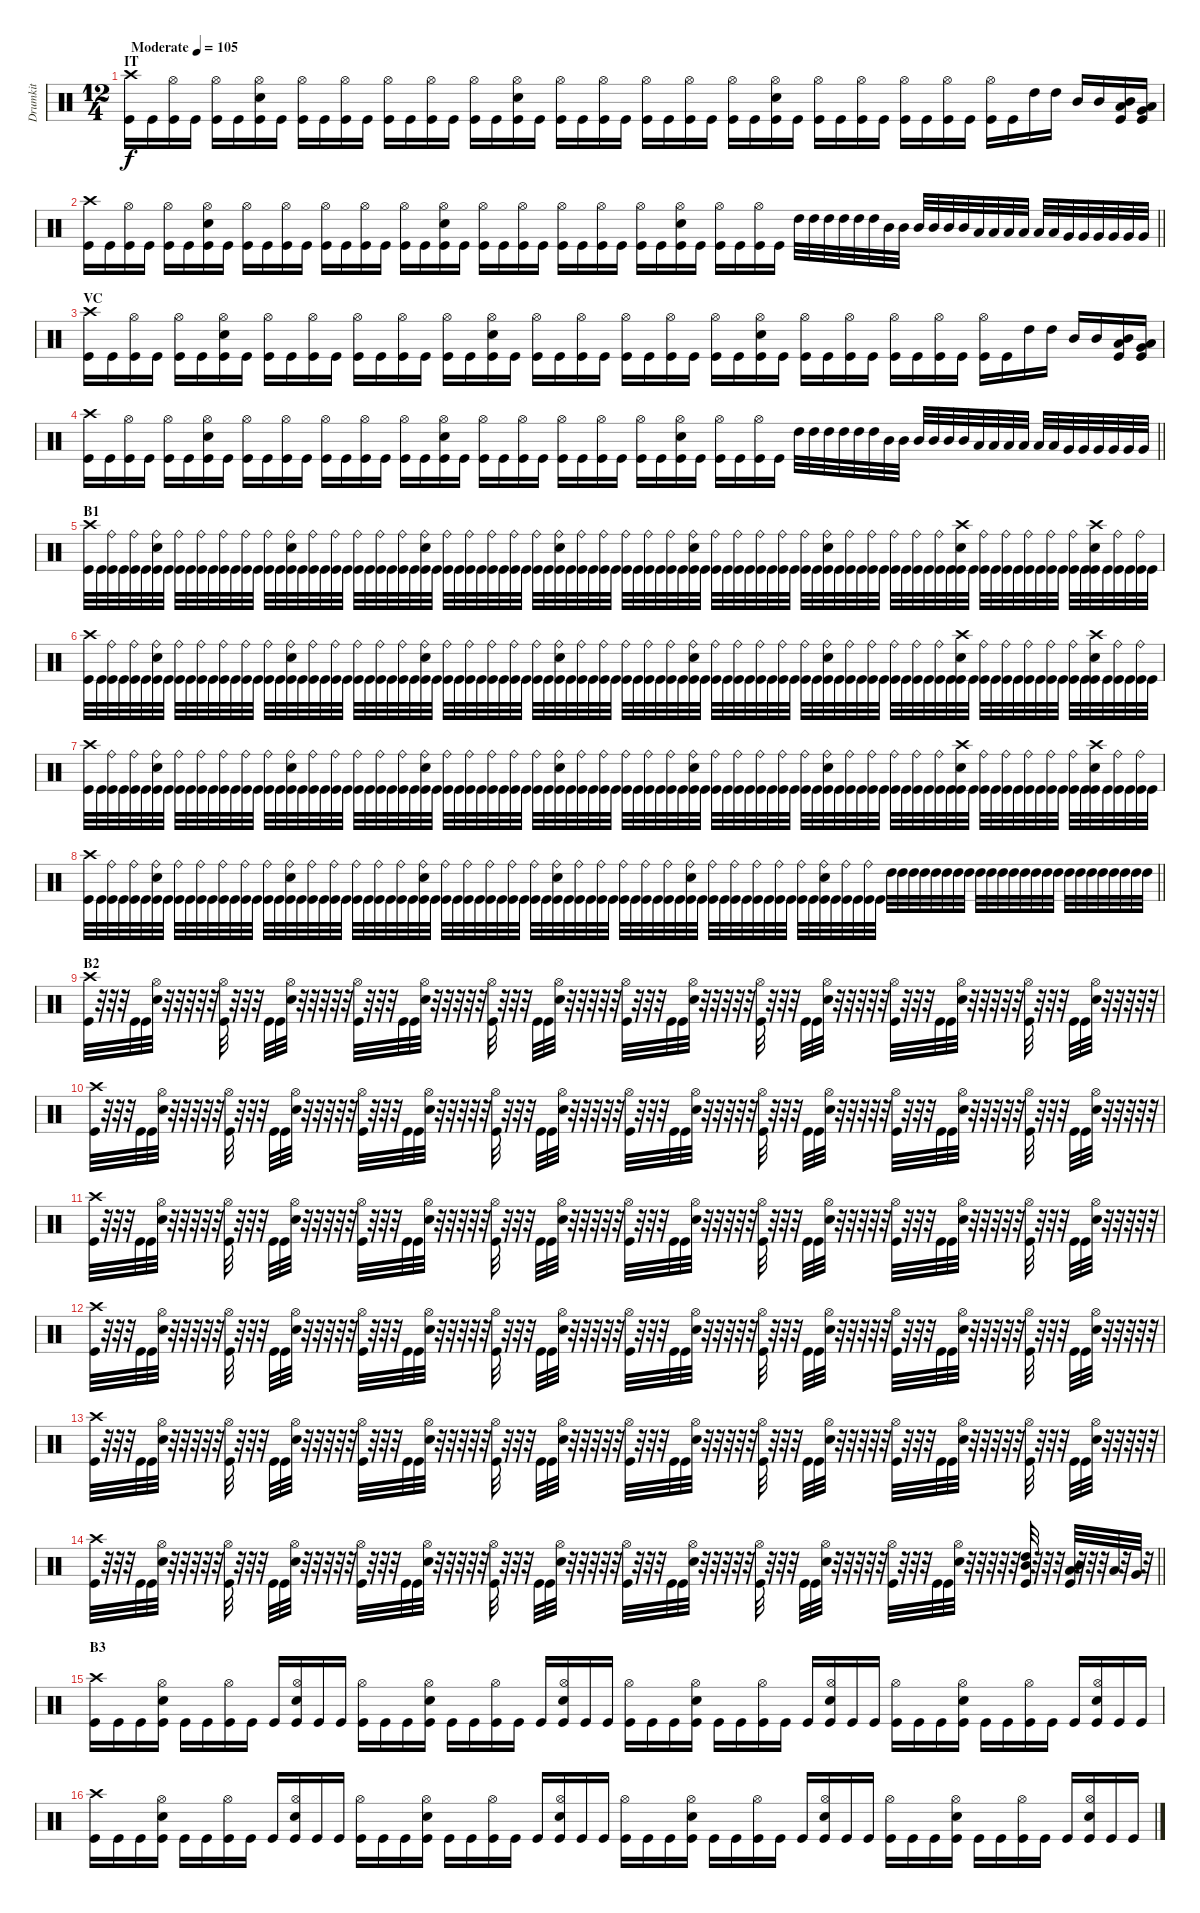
\track ("Drumkit" "Drumkit") {instrument percussion}
\staff {score}
\articulation defaults
\ts (12 4)
\section ("" "IT")
\tempo (105 "Moderate")
\clef neutral
\ks c
("Crash high (hit)" "Kick (hit)").16{dy f} "Kick (hit)".16 ("Hi-Hat (open)" "Kick (hit)").16 "Kick (hit)".16 ("Hi-Hat (open)" "Kick (hit)").16 "Kick (hit)".16 ("Hi-Hat (open)" "Snare (hit) 2" "Kick (hit)").16 "Kick (hit)".16 ("Hi-Hat (open)" "Kick (hit)").16 "Kick (hit)".16 ("Hi-Hat (open)" "Kick (hit)").16 "Kick (hit)".16 ("Hi-Hat (open)" "Kick (hit)").16 "Kick (hit)".16 ("Hi-Hat (open)" "Kick (hit)").16 "Kick (hit)".16 ("Hi-Hat (open)" "Kick (hit)").16 "Kick (hit)".16 ("Hi-Hat (open)" "Snare (hit) 2" "Kick (hit)").16 "Kick (hit)".16 ("Hi-Hat (open)" "Kick (hit)").16 "Kick (hit)".16 ("Hi-Hat (open)" "Kick (hit)").16 "Kick (hit)".16 ("Hi-Hat (open)" "Kick (hit)").16 "Kick (hit)".16 ("Hi-Hat (open)" "Kick (hit)").16 "Kick (hit)".16 ("Hi-Hat (open)" "Kick (hit)").16 "Kick (hit)".16 ("Hi-Hat (open)" "Snare (hit) 2" "Kick (hit)").16 "Kick (hit)".16 ("Hi-Hat (open)" "Kick (hit)").16 "Kick (hit)".16 ("Hi-Hat (open)" "Kick (hit)").16 "Kick (hit)".16 ("Hi-Hat (open)" "Kick (hit)").16 "Kick (hit)".16 ("Hi-Hat (open)" "Kick (hit)").16 "Kick (hit)".16 ("Hi-Hat (open)" "Kick (hit)").16 "Kick (hit)".16 "High Tom (hit)".16 "High Tom (hit)".16 "Mid Tom (hit)".16 "Mid Tom (hit)".16 ("Mid Tom (hit)" "Low Tom (hit)" "Kick (hit)").16 ("Low Tom (hit)" "Very Low Tom (hit)" "Kick (hit)").16 |
\barLineRight lightlight
("Crash high (hit)" "Kick (hit)").16 "Kick (hit)".16 ("Hi-Hat (open)" "Kick (hit)").16 "Kick (hit)".16 ("Hi-Hat (open)" "Kick (hit)").16 "Kick (hit)".16 ("Hi-Hat (open)" "Snare (hit) 2" "Kick (hit)").16 "Kick (hit)".16 ("Hi-Hat (open)" "Kick (hit)").16 "Kick (hit)".16 ("Hi-Hat (open)" "Kick (hit)").16 "Kick (hit)".16 ("Hi-Hat (open)" "Kick (hit)").16 "Kick (hit)".16 ("Hi-Hat (open)" "Kick (hit)").16 "Kick (hit)".16 ("Hi-Hat (open)" "Kick (hit)").16 "Kick (hit)".16 ("Hi-Hat (open)" "Snare (hit) 2" "Kick (hit)").16 "Kick (hit)".16 ("Hi-Hat (open)" "Kick (hit)").16 "Kick (hit)".16 ("Hi-Hat (open)" "Kick (hit)").16 "Kick (hit)".16 ("Hi-Hat (open)" "Kick (hit)").16 "Kick (hit)".16 ("Hi-Hat (open)" "Kick (hit)").16 "Kick (hit)".16 ("Hi-Hat (open)" "Kick (hit)").16 "Kick (hit)".16 ("Hi-Hat (open)" "Snare (hit) 2" "Kick (hit)").16 "Kick (hit)".16 ("Hi-Hat (open)" "Kick (hit)").16 "Kick (hit)".16 ("Hi-Hat (open)" "Kick (hit)").16 "Kick (hit)".16 "High Tom (hit)".32 "High Tom (hit)".32 "High Tom (hit)".32 "High Tom (hit)".32 "High Tom (hit)".32 "High Tom (hit)".32 "Mid Tom (hit)".32 "Mid Tom (hit)".32 "Mid Tom (hit)".32 "Mid Tom (hit)".32 "Mid Tom (hit)".32 "Mid Tom (hit)".32 "Low Tom (hit)".32 "Low Tom (hit)".32 "Low Tom (hit)".32 "Low Tom (hit)".32 "Low Tom (hit)".32 "Low Tom (hit)".32 "Very Low Tom (hit)".32 "Very Low Tom (hit)".32 "Very Low Tom (hit)".32 "Very Low Tom (hit)".32 "Very Low Tom (hit)".32 "Very Low Tom (hit)".32 |
\section ("" "VC")
("Crash high (hit)" "Kick (hit)").16 "Kick (hit)".16 ("Hi-Hat (open)" "Kick (hit)").16 "Kick (hit)".16 ("Hi-Hat (open)" "Kick (hit)").16 "Kick (hit)".16 ("Hi-Hat (open)" "Snare (hit) 2" "Kick (hit)").16 "Kick (hit)".16 ("Hi-Hat (open)" "Kick (hit)").16 "Kick (hit)".16 ("Hi-Hat (open)" "Kick (hit)").16 "Kick (hit)".16 ("Hi-Hat (open)" "Kick (hit)").16 "Kick (hit)".16 ("Hi-Hat (open)" "Kick (hit)").16 "Kick (hit)".16 ("Hi-Hat (open)" "Kick (hit)").16 "Kick (hit)".16 ("Hi-Hat (open)" "Snare (hit) 2" "Kick (hit)").16 "Kick (hit)".16 ("Hi-Hat (open)" "Kick (hit)").16 "Kick (hit)".16 ("Hi-Hat (open)" "Kick (hit)").16 "Kick (hit)".16 ("Hi-Hat (open)" "Kick (hit)").16 "Kick (hit)".16 ("Hi-Hat (open)" "Kick (hit)").16 "Kick (hit)".16 ("Hi-Hat (open)" "Kick (hit)").16 "Kick (hit)".16 ("Hi-Hat (open)" "Snare (hit) 2" "Kick (hit)").16 "Kick (hit)".16 ("Hi-Hat (open)" "Kick (hit)").16 "Kick (hit)".16 ("Hi-Hat (open)" "Kick (hit)").16 "Kick (hit)".16 ("Hi-Hat (open)" "Kick (hit)").16 "Kick (hit)".16 ("Hi-Hat (open)" "Kick (hit)").16 "Kick (hit)".16 ("Hi-Hat (open)" "Kick (hit)").16 "Kick (hit)".16 "High Tom (hit)".16 "High Tom (hit)".16 "Mid Tom (hit)".16 "Mid Tom (hit)".16 ("Mid Tom (hit)" "Low Tom (hit)" "Kick (hit)").16 ("Low Tom (hit)" "Very Low Tom (hit)" "Kick (hit)").16 |
\barLineRight lightlight
("Crash high (hit)" "Kick (hit)").16 "Kick (hit)".16 ("Hi-Hat (open)" "Kick (hit)").16 "Kick (hit)".16 ("Hi-Hat (open)" "Kick (hit)").16 "Kick (hit)".16 ("Hi-Hat (open)" "Snare (hit) 2" "Kick (hit)").16 "Kick (hit)".16 ("Hi-Hat (open)" "Kick (hit)").16 "Kick (hit)".16 ("Hi-Hat (open)" "Kick (hit)").16 "Kick (hit)".16 ("Hi-Hat (open)" "Kick (hit)").16 "Kick (hit)".16 ("Hi-Hat (open)" "Kick (hit)").16 "Kick (hit)".16 ("Hi-Hat (open)" "Kick (hit)").16 "Kick (hit)".16 ("Hi-Hat (open)" "Snare (hit) 2" "Kick (hit)").16 "Kick (hit)".16 ("Hi-Hat (open)" "Kick (hit)").16 "Kick (hit)".16 ("Hi-Hat (open)" "Kick (hit)").16 "Kick (hit)".16 ("Hi-Hat (open)" "Kick (hit)").16 "Kick (hit)".16 ("Hi-Hat (open)" "Kick (hit)").16 "Kick (hit)".16 ("Hi-Hat (open)" "Kick (hit)").16 "Kick (hit)".16 ("Hi-Hat (open)" "Snare (hit) 2" "Kick (hit)").16 "Kick (hit)".16 ("Hi-Hat (open)" "Kick (hit)").16 "Kick (hit)".16 ("Hi-Hat (open)" "Kick (hit)").16 "Kick (hit)".16 "High Tom (hit)".32 "High Tom (hit)".32 "High Tom (hit)".32 "High Tom (hit)".32 "High Tom (hit)".32 "High Tom (hit)".32 "Mid Tom (hit)".32 "Mid Tom (hit)".32 "Mid Tom (hit)".32 "Mid Tom (hit)".32 "Mid Tom (hit)".32 "Mid Tom (hit)".32 "Low Tom (hit)".32 "Low Tom (hit)".32 "Low Tom (hit)".32 "Low Tom (hit)".32 "Low Tom (hit)".32 "Low Tom (hit)".32 "Very Low Tom (hit)".32 "Very Low Tom (hit)".32 "Very Low Tom (hit)".32 "Very Low Tom (hit)".32 "Very Low Tom (hit)".32 "Very Low Tom (hit)".32 |
\section ("" "B1")
("Crash high (hit)" "Kick (hit)").32 "Kick (hit)".32 ("Ride (bell)" "Kick (hit)").32 "Kick (hit)".32 ("Ride (bell)" "Kick (hit)").32 "Kick (hit)".32 ("Ride (bell)" "Snare (hit) 2" "Kick (hit)").32 "Kick (hit)".32 ("Ride (bell)" "Kick (hit)").32 "Kick (hit)".32 ("Ride (bell)" "Kick (hit)").32 "Kick (hit)".32 ("Ride (bell)" "Kick (hit)").32 "Kick (hit)".32 ("Ride (bell)" "Kick (hit)").32 "Kick (hit)".32 ("Ride (bell)" "Kick (hit)").32 "Kick (hit)".32 ("Ride (bell)" "Snare (hit) 2" "Kick (hit)").32 "Kick (hit)".32 ("Ride (bell)" "Kick (hit)").32 "Kick (hit)".32 ("Ride (bell)" "Kick (hit)").32 "Kick (hit)".32 ("Ride (bell)" "Kick (hit)").32 "Kick (hit)".32 ("Ride (bell)" "Kick (hit)").32 "Kick (hit)".32 ("Ride (bell)" "Kick (hit)").32 "Kick (hit)".32 ("Ride (bell)" "Snare (hit) 2" "Kick (hit)").32 "Kick (hit)".32 ("Ride (bell)" "Kick (hit)").32 "Kick (hit)".32 ("Ride (bell)" "Kick (hit)").32 "Kick (hit)".32 ("Ride (bell)" "Kick (hit)").32 "Kick (hit)".32 ("Ride (bell)" "Kick (hit)").32 "Kick (hit)".32 ("Ride (bell)" "Kick (hit)").32 "Kick (hit)".32 ("Ride (bell)" "Snare (hit) 2" "Kick (hit)").32 "Kick (hit)".32 ("Ride (bell)" "Kick (hit)").32 "Kick (hit)".32 ("Ride (bell)" "Kick (hit)").32 "Kick (hit)".32 ("Ride (bell)" "Kick (hit)").32 "Kick (hit)".32 ("Ride (bell)" "Kick (hit)").32 "Kick (hit)".32 ("Ride (bell)" "Kick (hit)").32 "Kick (hit)".32 ("Ride (bell)" "Snare (hit) 2" "Kick (hit)").32 "Kick (hit)".32 ("Ride (bell)" "Kick (hit)").32 "Kick (hit)".32 ("Ride (bell)" "Kick (hit)").32 "Kick (hit)".32 ("Ride (bell)" "Kick (hit)").32 "Kick (hit)".32 ("Ride (bell)" "Kick (hit)").32 "Kick (hit)".32 ("Ride (bell)" "Kick (hit)").32 "Kick (hit)".32 ("Ride (bell)" "Snare (hit) 2" "Kick (hit)").32 "Kick (hit)".32 ("Ride (bell)" "Kick (hit)").32 "Kick (hit)".32 ("Ride (bell)" "Kick (hit)").32 "Kick (hit)".32 ("Ride (bell)" "Kick (hit)").32 "Kick (hit)".32 ("Ride (bell)" "Kick (hit)").32 "Kick (hit)".32 ("Ride (bell)" "Kick (hit)").32 "Kick (hit)".32 ("Crash high (hit)" "Snare (hit) 2" "Kick (hit)").32 "Kick (hit)".32 ("Ride (bell)" "Kick (hit)").32 "Kick (hit)".32 ("Ride (bell)" "Kick (hit)").32 "Kick (hit)".32 ("Ride (bell)" "Kick (hit)").32 "Kick (hit)".32 ("Ride (bell)" "Kick (hit)").32 "Kick (hit)".32 ("Ride (bell)" "Kick (hit)").32 "Kick (hit)".32 ("Crash high (hit)" "Snare (hit) 2" "Kick (hit)").32 "Kick (hit)".32 ("Ride (bell)" "Kick (hit)").32 "Kick (hit)".32 ("Ride (bell)" "Kick (hit)").32 "Kick (hit)".32 |
("Crash high (hit)" "Kick (hit)").32 "Kick (hit)".32 ("Ride (bell)" "Kick (hit)").32 "Kick (hit)".32 ("Ride (bell)" "Kick (hit)").32 "Kick (hit)".32 ("Ride (bell)" "Snare (hit) 2" "Kick (hit)").32 "Kick (hit)".32 ("Ride (bell)" "Kick (hit)").32 "Kick (hit)".32 ("Ride (bell)" "Kick (hit)").32 "Kick (hit)".32 ("Ride (bell)" "Kick (hit)").32 "Kick (hit)".32 ("Ride (bell)" "Kick (hit)").32 "Kick (hit)".32 ("Ride (bell)" "Kick (hit)").32 "Kick (hit)".32 ("Ride (bell)" "Snare (hit) 2" "Kick (hit)").32 "Kick (hit)".32 ("Ride (bell)" "Kick (hit)").32 "Kick (hit)".32 ("Ride (bell)" "Kick (hit)").32 "Kick (hit)".32 ("Ride (bell)" "Kick (hit)").32 "Kick (hit)".32 ("Ride (bell)" "Kick (hit)").32 "Kick (hit)".32 ("Ride (bell)" "Kick (hit)").32 "Kick (hit)".32 ("Ride (bell)" "Snare (hit) 2" "Kick (hit)").32 "Kick (hit)".32 ("Ride (bell)" "Kick (hit)").32 "Kick (hit)".32 ("Ride (bell)" "Kick (hit)").32 "Kick (hit)".32 ("Ride (bell)" "Kick (hit)").32 "Kick (hit)".32 ("Ride (bell)" "Kick (hit)").32 "Kick (hit)".32 ("Ride (bell)" "Kick (hit)").32 "Kick (hit)".32 ("Ride (bell)" "Snare (hit) 2" "Kick (hit)").32 "Kick (hit)".32 ("Ride (bell)" "Kick (hit)").32 "Kick (hit)".32 ("Ride (bell)" "Kick (hit)").32 "Kick (hit)".32 ("Ride (bell)" "Kick (hit)").32 "Kick (hit)".32 ("Ride (bell)" "Kick (hit)").32 "Kick (hit)".32 ("Ride (bell)" "Kick (hit)").32 "Kick (hit)".32 ("Ride (bell)" "Snare (hit) 2" "Kick (hit)").32 "Kick (hit)".32 ("Ride (bell)" "Kick (hit)").32 "Kick (hit)".32 ("Ride (bell)" "Kick (hit)").32 "Kick (hit)".32 ("Ride (bell)" "Kick (hit)").32 "Kick (hit)".32 ("Ride (bell)" "Kick (hit)").32 "Kick (hit)".32 ("Ride (bell)" "Kick (hit)").32 "Kick (hit)".32 ("Ride (bell)" "Snare (hit) 2" "Kick (hit)").32 "Kick (hit)".32 ("Ride (bell)" "Kick (hit)").32 "Kick (hit)".32 ("Ride (bell)" "Kick (hit)").32 "Kick (hit)".32 ("Ride (bell)" "Kick (hit)").32 "Kick (hit)".32 ("Ride (bell)" "Kick (hit)").32 "Kick (hit)".32 ("Ride (bell)" "Kick (hit)").32 "Kick (hit)".32 ("Crash high (hit)" "Snare (hit) 2" "Kick (hit)").32 "Kick (hit)".32 ("Ride (bell)" "Kick (hit)").32 "Kick (hit)".32 ("Ride (bell)" "Kick (hit)").32 "Kick (hit)".32 ("Ride (bell)" "Kick (hit)").32 "Kick (hit)".32 ("Ride (bell)" "Kick (hit)").32 "Kick (hit)".32 ("Ride (bell)" "Kick (hit)").32 "Kick (hit)".32 ("Crash high (hit)" "Snare (hit) 2" "Kick (hit)").32 "Kick (hit)".32 ("Ride (bell)" "Kick (hit)").32 "Kick (hit)".32 ("Ride (bell)" "Kick (hit)").32 "Kick (hit)".32 |
("Crash high (hit)" "Kick (hit)").32 "Kick (hit)".32 ("Ride (bell)" "Kick (hit)").32 "Kick (hit)".32 ("Ride (bell)" "Kick (hit)").32 "Kick (hit)".32 ("Ride (bell)" "Snare (hit) 2" "Kick (hit)").32 "Kick (hit)".32 ("Ride (bell)" "Kick (hit)").32 "Kick (hit)".32 ("Ride (bell)" "Kick (hit)").32 "Kick (hit)".32 ("Ride (bell)" "Kick (hit)").32 "Kick (hit)".32 ("Ride (bell)" "Kick (hit)").32 "Kick (hit)".32 ("Ride (bell)" "Kick (hit)").32 "Kick (hit)".32 ("Ride (bell)" "Snare (hit) 2" "Kick (hit)").32 "Kick (hit)".32 ("Ride (bell)" "Kick (hit)").32 "Kick (hit)".32 ("Ride (bell)" "Kick (hit)").32 "Kick (hit)".32 ("Ride (bell)" "Kick (hit)").32 "Kick (hit)".32 ("Ride (bell)" "Kick (hit)").32 "Kick (hit)".32 ("Ride (bell)" "Kick (hit)").32 "Kick (hit)".32 ("Ride (bell)" "Snare (hit) 2" "Kick (hit)").32 "Kick (hit)".32 ("Ride (bell)" "Kick (hit)").32 "Kick (hit)".32 ("Ride (bell)" "Kick (hit)").32 "Kick (hit)".32 ("Ride (bell)" "Kick (hit)").32 "Kick (hit)".32 ("Ride (bell)" "Kick (hit)").32 "Kick (hit)".32 ("Ride (bell)" "Kick (hit)").32 "Kick (hit)".32 ("Ride (bell)" "Snare (hit) 2" "Kick (hit)").32 "Kick (hit)".32 ("Ride (bell)" "Kick (hit)").32 "Kick (hit)".32 ("Ride (bell)" "Kick (hit)").32 "Kick (hit)".32 ("Ride (bell)" "Kick (hit)").32 "Kick (hit)".32 ("Ride (bell)" "Kick (hit)").32 "Kick (hit)".32 ("Ride (bell)" "Kick (hit)").32 "Kick (hit)".32 ("Ride (bell)" "Snare (hit) 2" "Kick (hit)").32 "Kick (hit)".32 ("Ride (bell)" "Kick (hit)").32 "Kick (hit)".32 ("Ride (bell)" "Kick (hit)").32 "Kick (hit)".32 ("Ride (bell)" "Kick (hit)").32 "Kick (hit)".32 ("Ride (bell)" "Kick (hit)").32 "Kick (hit)".32 ("Ride (bell)" "Kick (hit)").32 "Kick (hit)".32 ("Ride (bell)" "Snare (hit) 2" "Kick (hit)").32 "Kick (hit)".32 ("Ride (bell)" "Kick (hit)").32 "Kick (hit)".32 ("Ride (bell)" "Kick (hit)").32 "Kick (hit)".32 ("Ride (bell)" "Kick (hit)").32 "Kick (hit)".32 ("Ride (bell)" "Kick (hit)").32 "Kick (hit)".32 ("Ride (bell)" "Kick (hit)").32 "Kick (hit)".32 ("Crash high (hit)" "Snare (hit) 2" "Kick (hit)").32 "Kick (hit)".32 ("Ride (bell)" "Kick (hit)").32 "Kick (hit)".32 ("Ride (bell)" "Kick (hit)").32 "Kick (hit)".32 ("Ride (bell)" "Kick (hit)").32 "Kick (hit)".32 ("Ride (bell)" "Kick (hit)").32 "Kick (hit)".32 ("Ride (bell)" "Kick (hit)").32 "Kick (hit)".32 ("Crash high (hit)" "Snare (hit) 2" "Kick (hit)").32 "Kick (hit)".32 ("Ride (bell)" "Kick (hit)").32 "Kick (hit)".32 ("Ride (bell)" "Kick (hit)").32 "Kick (hit)".32 |
\barLineRight lightlight
("Crash high (hit)" "Kick (hit)").32 "Kick (hit)".32 ("Ride (bell)" "Kick (hit)").32 "Kick (hit)".32 ("Ride (bell)" "Kick (hit)").32 "Kick (hit)".32 ("Ride (bell)" "Snare (hit) 2" "Kick (hit)").32 "Kick (hit)".32 ("Ride (bell)" "Kick (hit)").32 "Kick (hit)".32 ("Ride (bell)" "Kick (hit)").32 "Kick (hit)".32 ("Ride (bell)" "Kick (hit)").32 "Kick (hit)".32 ("Ride (bell)" "Kick (hit)").32 "Kick (hit)".32 ("Ride (bell)" "Kick (hit)").32 "Kick (hit)".32 ("Ride (bell)" "Snare (hit) 2" "Kick (hit)").32 "Kick (hit)".32 ("Ride (bell)" "Kick (hit)").32 "Kick (hit)".32 ("Ride (bell)" "Kick (hit)").32 "Kick (hit)".32 ("Ride (bell)" "Kick (hit)").32 "Kick (hit)".32 ("Ride (bell)" "Kick (hit)").32 "Kick (hit)".32 ("Ride (bell)" "Kick (hit)").32 "Kick (hit)".32 ("Ride (bell)" "Snare (hit) 2" "Kick (hit)").32 "Kick (hit)".32 ("Ride (bell)" "Kick (hit)").32 "Kick (hit)".32 ("Ride (bell)" "Kick (hit)").32 "Kick (hit)".32 ("Ride (bell)" "Kick (hit)").32 "Kick (hit)".32 ("Ride (bell)" "Kick (hit)").32 "Kick (hit)".32 ("Ride (bell)" "Kick (hit)").32 "Kick (hit)".32 ("Ride (bell)" "Snare (hit) 2" "Kick (hit)").32 "Kick (hit)".32 ("Ride (bell)" "Kick (hit)").32 "Kick (hit)".32 ("Ride (bell)" "Kick (hit)").32 "Kick (hit)".32 ("Ride (bell)" "Kick (hit)").32 "Kick (hit)".32 ("Ride (bell)" "Kick (hit)").32 "Kick (hit)".32 ("Ride (bell)" "Kick (hit)").32 "Kick (hit)".32 ("Ride (bell)" "Snare (hit) 2" "Kick (hit)").32 "Kick (hit)".32 ("Ride (bell)" "Kick (hit)").32 "Kick (hit)".32 ("Ride (bell)" "Kick (hit)").32 "Kick (hit)".32 ("Ride (bell)" "Kick (hit)").32 "Kick (hit)".32 ("Ride (bell)" "Kick (hit)").32 "Kick (hit)".32 ("Ride (bell)" "Kick (hit)").32 "Kick (hit)".32 ("Ride (bell)" "Snare (hit) 2" "Kick (hit)").32 "Kick (hit)".32 ("Ride (bell)" "Kick (hit)").32 "Kick (hit)".32 ("Ride (bell)" "Kick (hit)").32 "Kick (hit)".32 "High Tom (hit)".32 "High Tom (hit)".32 "High Tom (hit)".32 "High Tom (hit)".32 "High Tom (hit)".32 "High Tom (hit)".32 "High Tom (hit)".32 "High Tom (hit)".32 "High Tom (hit)".32 "High Tom (hit)".32 "High Tom (hit)".32 "High Tom (hit)".32 "High Tom (hit)".32 "High Tom (hit)".32 "High Tom (hit)".32 "High Tom (hit)".32 "High Tom (hit)".32 "High Tom (hit)".32 "High Tom (hit)".32 "High Tom (hit)".32 "High Tom (hit)".32 "High Tom (hit)".32 "High Tom (hit)".32 "High Tom (hit)".32 |
\section ("" "B2")
("Crash high (hit)" "Kick (hit)").32 r.32 r.32 r.32 "Kick (hit)".32 "Kick (hit)".32 ("Hi-Hat (open)" "Snare (hit) 2").32 r.32 r.32 r.32 r.32 r.32 ("Hi-Hat (open)" "Kick (hit)").32 r.32 r.32 r.32 "Kick (hit)".32 "Kick (hit)".32 ("Hi-Hat (open)" "Snare (hit) 2").32 r.32 r.32 r.32 r.32 r.32 ("Hi-Hat (open)" "Kick (hit)").32 r.32 r.32 r.32 "Kick (hit)".32 "Kick (hit)".32 ("Hi-Hat (open)" "Snare (hit) 2").32 r.32 r.32 r.32 r.32 r.32 ("Hi-Hat (open)" "Kick (hit)").32 r.32 r.32 r.32 "Kick (hit)".32 "Kick (hit)".32 ("Hi-Hat (open)" "Snare (hit) 2").32 r.32 r.32 r.32 r.32 r.32 ("Hi-Hat (open)" "Kick (hit)").32 r.32 r.32 r.32 "Kick (hit)".32 "Kick (hit)".32 ("Hi-Hat (open)" "Snare (hit) 2").32 r.32 r.32 r.32 r.32 r.32 ("Hi-Hat (open)" "Kick (hit)").32 r.32 r.32 r.32 "Kick (hit)".32 "Kick (hit)".32 ("Hi-Hat (open)" "Snare (hit) 2").32 r.32 r.32 r.32 r.32 r.32 ("Hi-Hat (open)" "Kick (hit)").32 r.32 r.32 r.32 "Kick (hit)".32 "Kick (hit)".32 ("Hi-Hat (open)" "Snare (hit) 2").32 r.32 r.32 r.32 r.32 r.32 ("Hi-Hat (open)" "Kick (hit)").32 r.32 r.32 r.32 "Kick (hit)".32 "Kick (hit)".32 ("Hi-Hat (open)" "Snare (hit) 2").32 r.32 r.32 r.32 r.32 r.32 |
("Crash high (hit)" "Kick (hit)").32 r.32 r.32 r.32 "Kick (hit)".32 "Kick (hit)".32 ("Hi-Hat (open)" "Snare (hit) 2").32 r.32 r.32 r.32 r.32 r.32 ("Hi-Hat (open)" "Kick (hit)").32 r.32 r.32 r.32 "Kick (hit)".32 "Kick (hit)".32 ("Hi-Hat (open)" "Snare (hit) 2").32 r.32 r.32 r.32 r.32 r.32 ("Hi-Hat (open)" "Kick (hit)").32 r.32 r.32 r.32 "Kick (hit)".32 "Kick (hit)".32 ("Hi-Hat (open)" "Snare (hit) 2").32 r.32 r.32 r.32 r.32 r.32 ("Hi-Hat (open)" "Kick (hit)").32 r.32 r.32 r.32 "Kick (hit)".32 "Kick (hit)".32 ("Hi-Hat (open)" "Snare (hit) 2").32 r.32 r.32 r.32 r.32 r.32 ("Hi-Hat (open)" "Kick (hit)").32 r.32 r.32 r.32 "Kick (hit)".32 "Kick (hit)".32 ("Hi-Hat (open)" "Snare (hit) 2").32 r.32 r.32 r.32 r.32 r.32 ("Hi-Hat (open)" "Kick (hit)").32 r.32 r.32 r.32 "Kick (hit)".32 "Kick (hit)".32 ("Hi-Hat (open)" "Snare (hit) 2").32 r.32 r.32 r.32 r.32 r.32 ("Hi-Hat (open)" "Kick (hit)").32 r.32 r.32 r.32 "Kick (hit)".32 "Kick (hit)".32 ("Hi-Hat (open)" "Snare (hit) 2").32 r.32 r.32 r.32 r.32 r.32 ("Hi-Hat (open)" "Kick (hit)").32 r.32 r.32 r.32 "Kick (hit)".32 "Kick (hit)".32 ("Hi-Hat (open)" "Snare (hit) 2").32 r.32 r.32 r.32 r.32 r.32 |
("Crash high (hit)" "Kick (hit)").32 r.32 r.32 r.32 "Kick (hit)".32 "Kick (hit)".32 ("Hi-Hat (open)" "Snare (hit) 2").32 r.32 r.32 r.32 r.32 r.32 ("Hi-Hat (open)" "Kick (hit)").32 r.32 r.32 r.32 "Kick (hit)".32 "Kick (hit)".32 ("Hi-Hat (open)" "Snare (hit) 2").32 r.32 r.32 r.32 r.32 r.32 ("Hi-Hat (open)" "Kick (hit)").32 r.32 r.32 r.32 "Kick (hit)".32 "Kick (hit)".32 ("Hi-Hat (open)" "Snare (hit) 2").32 r.32 r.32 r.32 r.32 r.32 ("Hi-Hat (open)" "Kick (hit)").32 r.32 r.32 r.32 "Kick (hit)".32 "Kick (hit)".32 ("Hi-Hat (open)" "Snare (hit) 2").32 r.32 r.32 r.32 r.32 r.32 ("Hi-Hat (open)" "Kick (hit)").32 r.32 r.32 r.32 "Kick (hit)".32 "Kick (hit)".32 ("Hi-Hat (open)" "Snare (hit) 2").32 r.32 r.32 r.32 r.32 r.32 ("Hi-Hat (open)" "Kick (hit)").32 r.32 r.32 r.32 "Kick (hit)".32 "Kick (hit)".32 ("Hi-Hat (open)" "Snare (hit) 2").32 r.32 r.32 r.32 r.32 r.32 ("Hi-Hat (open)" "Kick (hit)").32 r.32 r.32 r.32 "Kick (hit)".32 "Kick (hit)".32 ("Hi-Hat (open)" "Snare (hit) 2").32 r.32 r.32 r.32 r.32 r.32 ("Hi-Hat (open)" "Kick (hit)").32 r.32 r.32 r.32 "Kick (hit)".32 "Kick (hit)".32 ("Hi-Hat (open)" "Snare (hit) 2").32 r.32 r.32 r.32 r.32 r.32 |
("Crash high (hit)" "Kick (hit)").32 r.32 r.32 r.32 "Kick (hit)".32 "Kick (hit)".32 ("Hi-Hat (open)" "Snare (hit) 2").32 r.32 r.32 r.32 r.32 r.32 ("Hi-Hat (open)" "Kick (hit)").32 r.32 r.32 r.32 "Kick (hit)".32 "Kick (hit)".32 ("Hi-Hat (open)" "Snare (hit) 2").32 r.32 r.32 r.32 r.32 r.32 ("Hi-Hat (open)" "Kick (hit)").32 r.32 r.32 r.32 "Kick (hit)".32 "Kick (hit)".32 ("Hi-Hat (open)" "Snare (hit) 2").32 r.32 r.32 r.32 r.32 r.32 ("Hi-Hat (open)" "Kick (hit)").32 r.32 r.32 r.32 "Kick (hit)".32 "Kick (hit)".32 ("Hi-Hat (open)" "Snare (hit) 2").32 r.32 r.32 r.32 r.32 r.32 ("Hi-Hat (open)" "Kick (hit)").32 r.32 r.32 r.32 "Kick (hit)".32 "Kick (hit)".32 ("Hi-Hat (open)" "Snare (hit) 2").32 r.32 r.32 r.32 r.32 r.32 ("Hi-Hat (open)" "Kick (hit)").32 r.32 r.32 r.32 "Kick (hit)".32 "Kick (hit)".32 ("Hi-Hat (open)" "Snare (hit) 2").32 r.32 r.32 r.32 r.32 r.32 ("Hi-Hat (open)" "Kick (hit)").32 r.32 r.32 r.32 "Kick (hit)".32 "Kick (hit)".32 ("Hi-Hat (open)" "Snare (hit) 2").32 r.32 r.32 r.32 r.32 r.32 ("Hi-Hat (open)" "Kick (hit)").32 r.32 r.32 r.32 "Kick (hit)".32 "Kick (hit)".32 ("Hi-Hat (open)" "Snare (hit) 2").32 r.32 r.32 r.32 r.32 r.32 |
("Crash high (hit)" "Kick (hit)").32 r.32 r.32 r.32 "Kick (hit)".32 "Kick (hit)".32 ("Hi-Hat (open)" "Snare (hit) 2").32 r.32 r.32 r.32 r.32 r.32 ("Hi-Hat (open)" "Kick (hit)").32 r.32 r.32 r.32 "Kick (hit)".32 "Kick (hit)".32 ("Hi-Hat (open)" "Snare (hit) 2").32 r.32 r.32 r.32 r.32 r.32 ("Hi-Hat (open)" "Kick (hit)").32 r.32 r.32 r.32 "Kick (hit)".32 "Kick (hit)".32 ("Hi-Hat (open)" "Snare (hit) 2").32 r.32 r.32 r.32 r.32 r.32 ("Hi-Hat (open)" "Kick (hit)").32 r.32 r.32 r.32 "Kick (hit)".32 "Kick (hit)".32 ("Hi-Hat (open)" "Snare (hit) 2").32 r.32 r.32 r.32 r.32 r.32 ("Hi-Hat (open)" "Kick (hit)").32 r.32 r.32 r.32 "Kick (hit)".32 "Kick (hit)".32 ("Hi-Hat (open)" "Snare (hit) 2").32 r.32 r.32 r.32 r.32 r.32 ("Hi-Hat (open)" "Kick (hit)").32 r.32 r.32 r.32 "Kick (hit)".32 "Kick (hit)".32 ("Hi-Hat (open)" "Snare (hit) 2").32 r.32 r.32 r.32 r.32 r.32 ("Hi-Hat (open)" "Kick (hit)").32 r.32 r.32 r.32 "Kick (hit)".32 "Kick (hit)".32 ("Hi-Hat (open)" "Snare (hit) 2").32 r.32 r.32 r.32 r.32 r.32 ("Hi-Hat (open)" "Kick (hit)").32 r.32 r.32 r.32 "Kick (hit)".32 "Kick (hit)".32 ("Hi-Hat (open)" "Snare (hit) 2").32 r.32 r.32 r.32 r.32 r.32 |
\barLineRight lightlight
("Crash high (hit)" "Kick (hit)").32 r.32 r.32 r.32 "Kick (hit)".32 "Kick (hit)".32 ("Hi-Hat (open)" "Snare (hit) 2").32 r.32 r.32 r.32 r.32 r.32 ("Hi-Hat (open)" "Kick (hit)").32 r.32 r.32 r.32 "Kick (hit)".32 "Kick (hit)".32 ("Hi-Hat (open)" "Snare (hit) 2").32 r.32 r.32 r.32 r.32 r.32 ("Hi-Hat (open)" "Kick (hit)").32 r.32 r.32 r.32 "Kick (hit)".32 "Kick (hit)".32 ("Hi-Hat (open)" "Snare (hit) 2").32 r.32 r.32 r.32 r.32 r.32 ("Hi-Hat (open)" "Kick (hit)").32 r.32 r.32 r.32 "Kick (hit)".32 "Kick (hit)".32 ("Hi-Hat (open)" "Snare (hit) 2").32 r.32 r.32 r.32 r.32 r.32 ("Hi-Hat (open)" "Kick (hit)").32 r.32 r.32 r.32 "Kick (hit)".32 "Kick (hit)".32 ("Hi-Hat (open)" "Snare (hit) 2").32 r.32 r.32 r.32 r.32 r.32 ("Hi-Hat (open)" "Kick (hit)").32 r.32 r.32 r.32 "Kick (hit)".32 "Kick (hit)".32 ("Hi-Hat (open)" "Snare (hit) 2").32 r.32 r.32 r.32 r.32 r.32 ("Hi-Hat (open)" "Kick (hit)").32 r.32 r.32 r.32 "Kick (hit)".32 "Kick (hit)".32 ("Hi-Hat (open)" "Snare (hit) 2").32 r.32 r.32 r.32 r.32 r.32 ("High Tom (hit)" "Mid Tom (hit)" "Kick (hit)").32 r.32 r.32 r.32 ("Mid Tom (hit)" "Low Tom (hit)" "Kick (hit)").32 r.32 r.32 r.32 "Low Tom (hit)".32 r.32 "Very Low Tom (hit)".32 r.32 |
\section ("" "B3")
("Crash high (hit)" "Kick (hit)").16 "Kick (hit)".16 "Kick (hit)".16 ("Hi-Hat (open)" "Snare (hit) 2" "Kick (hit)").16 "Kick (hit)".16 "Kick (hit)".16 ("Hi-Hat (open)" "Kick (hit)").16 "Kick (hit)".16 "Kick (hit)".16 ("Hi-Hat (open)" "Snare (hit) 2" "Kick (hit)").16 "Kick (hit)".16 "Kick (hit)".16 ("Hi-Hat (open)" "Kick (hit)").16 "Kick (hit)".16 "Kick (hit)".16 ("Hi-Hat (open)" "Snare (hit) 2" "Kick (hit)").16 "Kick (hit)".16 "Kick (hit)".16 ("Hi-Hat (open)" "Kick (hit)").16 "Kick (hit)".16 "Kick (hit)".16 ("Hi-Hat (open)" "Snare (hit) 2" "Kick (hit)").16 "Kick (hit)".16 "Kick (hit)".16 ("Hi-Hat (open)" "Kick (hit)").16 "Kick (hit)".16 "Kick (hit)".16 ("Hi-Hat (open)" "Snare (hit) 2" "Kick (hit)").16 "Kick (hit)".16 "Kick (hit)".16 ("Hi-Hat (open)" "Kick (hit)").16 "Kick (hit)".16 "Kick (hit)".16 ("Hi-Hat (open)" "Snare (hit) 2" "Kick (hit)").16 "Kick (hit)".16 "Kick (hit)".16 ("Hi-Hat (open)" "Kick (hit)").16 "Kick (hit)".16 "Kick (hit)".16 ("Hi-Hat (open)" "Snare (hit) 2" "Kick (hit)").16 "Kick (hit)".16 "Kick (hit)".16 ("Hi-Hat (open)" "Kick (hit)").16 "Kick (hit)".16 "Kick (hit)".16 ("Hi-Hat (open)" "Snare (hit) 2" "Kick (hit)").16 "Kick (hit)".16 "Kick (hit)".16 |
("Crash high (hit)" "Kick (hit)").16 "Kick (hit)".16 "Kick (hit)".16 ("Hi-Hat (open)" "Snare (hit) 2" "Kick (hit)").16 "Kick (hit)".16 "Kick (hit)".16 ("Hi-Hat (open)" "Kick (hit)").16 "Kick (hit)".16 "Kick (hit)".16 ("Hi-Hat (open)" "Snare (hit) 2" "Kick (hit)").16 "Kick (hit)".16 "Kick (hit)".16 ("Hi-Hat (open)" "Kick (hit)").16 "Kick (hit)".16 "Kick (hit)".16 ("Hi-Hat (open)" "Snare (hit) 2" "Kick (hit)").16 "Kick (hit)".16 "Kick (hit)".16 ("Hi-Hat (open)" "Kick (hit)").16 "Kick (hit)".16 "Kick (hit)".16 ("Hi-Hat (open)" "Snare (hit) 2" "Kick (hit)").16 "Kick (hit)".16 "Kick (hit)".16 ("Hi-Hat (open)" "Kick (hit)").16 "Kick (hit)".16 "Kick (hit)".16 ("Hi-Hat (open)" "Snare (hit) 2" "Kick (hit)").16 "Kick (hit)".16 "Kick (hit)".16 ("Hi-Hat (open)" "Kick (hit)").16 "Kick (hit)".16 "Kick (hit)".16 ("Hi-Hat (open)" "Snare (hit) 2" "Kick (hit)").16 "Kick (hit)".16 "Kick (hit)".16 ("Hi-Hat (open)" "Kick (hit)").16 "Kick (hit)".16 "Kick (hit)".16 ("Hi-Hat (open)" "Snare (hit) 2" "Kick (hit)").16 "Kick (hit)".16 "Kick (hit)".16 ("Hi-Hat (open)" "Kick (hit)").16 "Kick (hit)".16 "Kick (hit)".16 ("Hi-Hat (open)" "Snare (hit) 2" "Kick (hit)").16 "Kick (hit)".16 "Kick (hit)".16
